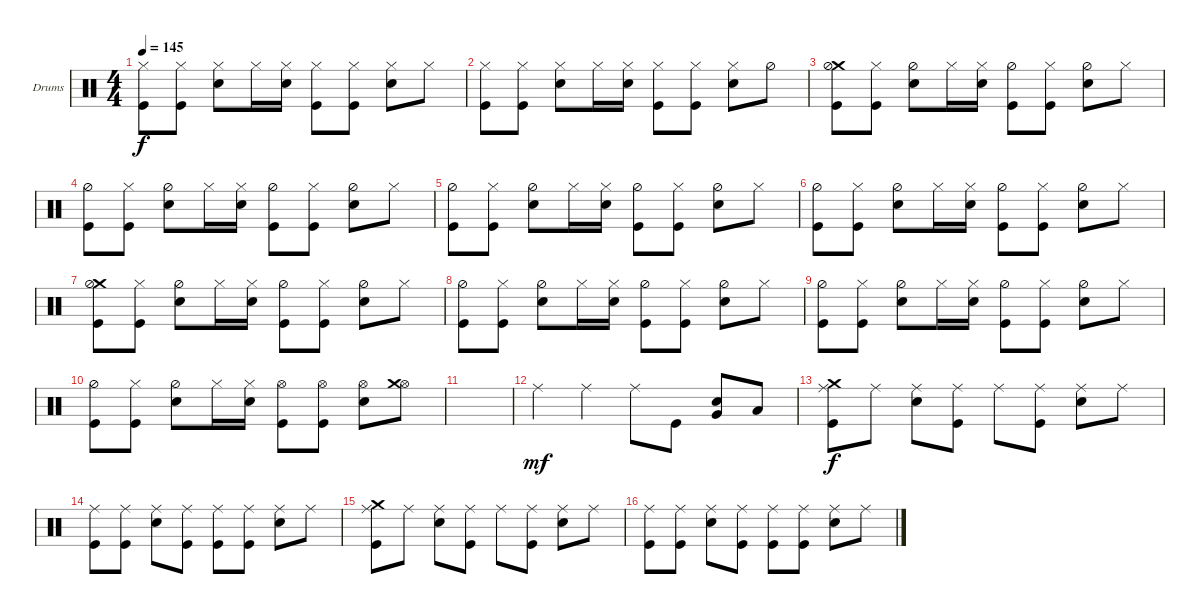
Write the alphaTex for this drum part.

\defaultSystemsLayout 4
\bracketExtendMode groupsimilarinstruments
\firstSystemTrackNameOrientation horizontal
\otherSystemsTrackNameOrientation horizontal
\track ("Drumkit" "Drums") {instrument percussion}
\staff {score}
\articulation defaults
\ts (4 4)
\tempo 145
\clef neutral
\ks c
("Kick (hit)" "Hi-Hat (closed)").8{dy f} ("Kick (hit)" "Hi-Hat (closed)").8 ("Snare (hit) 2" "Hi-Hat (closed)").8 "Hi-Hat (closed)".16 ("Snare (hit) 2" "Hi-Hat (closed)").16 ("Kick (hit)" "Hi-Hat (closed)").8 ("Kick (hit)" "Hi-Hat (closed)").8 ("Snare (hit) 2" "Hi-Hat (closed)").8 "Hi-Hat (closed)".8 |
("Kick (hit)" "Hi-Hat (closed)").8 ("Kick (hit)" "Hi-Hat (closed)").8 ("Snare (hit) 2" "Hi-Hat (closed)").8 "Hi-Hat (closed)".16 ("Snare (hit) 2" "Hi-Hat (closed)").16 ("Kick (hit)" "Hi-Hat (closed)").8 ("Kick (hit)" "Hi-Hat (closed)").8 ("Snare (hit) 2" "Hi-Hat (closed)").8 "Hi-Hat (half)".8 |
("Kick (hit)" "Crash medium (hit)" "Hi-Hat (half)").8 ("Kick (hit)" "Hi-Hat (closed)").8 ("Snare (hit) 2" "Hi-Hat (half)").8 "Hi-Hat (closed)".16 ("Snare (hit) 2" "Hi-Hat (closed)").16 ("Kick (hit)" "Hi-Hat (half)").8 ("Kick (hit)" "Hi-Hat (closed)").8 ("Snare (hit) 2" "Hi-Hat (half)").8 "Hi-Hat (closed)".8 |
("Kick (hit)" "Hi-Hat (half)").8 ("Kick (hit)" "Hi-Hat (closed)").8 ("Snare (hit) 2" "Hi-Hat (half)").8 "Hi-Hat (closed)".16 ("Snare (hit) 2" "Hi-Hat (closed)").16 ("Kick (hit)" "Hi-Hat (half)").8 ("Kick (hit)" "Hi-Hat (closed)").8 ("Snare (hit) 2" "Hi-Hat (half)").8 "Hi-Hat (closed)".8 |
("Kick (hit)" "Hi-Hat (half)").8 ("Kick (hit)" "Hi-Hat (closed)").8 ("Snare (hit) 2" "Hi-Hat (half)").8 "Hi-Hat (closed)".16 ("Snare (hit) 2" "Hi-Hat (closed)").16 ("Kick (hit)" "Hi-Hat (half)").8 ("Kick (hit)" "Hi-Hat (closed)").8 ("Snare (hit) 2" "Hi-Hat (half)").8 "Hi-Hat (closed)".8 |
("Kick (hit)" "Hi-Hat (half)").8 ("Kick (hit)" "Hi-Hat (closed)").8 ("Snare (hit) 2" "Hi-Hat (half)").8 "Hi-Hat (closed)".16 ("Snare (hit) 2" "Hi-Hat (closed)").16 ("Kick (hit)" "Hi-Hat (half)").8 ("Kick (hit)" "Hi-Hat (closed)").8 ("Snare (hit) 2" "Hi-Hat (half)").8 "Hi-Hat (closed)".8 |
("Kick (hit)" "Crash medium (hit)" "Hi-Hat (half)").8 ("Kick (hit)" "Hi-Hat (closed)").8 ("Snare (hit) 2" "Hi-Hat (half)").8 "Hi-Hat (closed)".16 ("Snare (hit) 2" "Hi-Hat (closed)").16 ("Kick (hit)" "Hi-Hat (half)").8 ("Kick (hit)" "Hi-Hat (closed)").8 ("Snare (hit) 2" "Hi-Hat (half)").8 "Hi-Hat (closed)".8 |
("Kick (hit)" "Hi-Hat (half)").8 ("Kick (hit)" "Hi-Hat (closed)").8 ("Snare (hit) 2" "Hi-Hat (half)").8 "Hi-Hat (closed)".16 ("Snare (hit) 2" "Hi-Hat (closed)").16 ("Kick (hit)" "Hi-Hat (half)").8 ("Kick (hit)" "Hi-Hat (closed)").8 ("Snare (hit) 2" "Hi-Hat (half)").8 "Hi-Hat (closed)".8 |
("Kick (hit)" "Hi-Hat (half)").8 ("Kick (hit)" "Hi-Hat (closed)").8 ("Snare (hit) 2" "Hi-Hat (half)").8 "Hi-Hat (closed)".16 ("Snare (hit) 2" "Hi-Hat (closed)").16 ("Kick (hit)" "Hi-Hat (half)").8 ("Kick (hit)" "Hi-Hat (closed)").8 ("Snare (hit) 2" "Hi-Hat (half)").8 "Hi-Hat (closed)".8 |
("Kick (hit)" "Hi-Hat (half)").8 ("Kick (hit)" "Hi-Hat (closed)").8 ("Snare (hit) 2" "Hi-Hat (half)").8 "Hi-Hat (closed)".16 ("Snare (hit) 2" "Hi-Hat (closed)").16 ("Kick (hit)" "Hi-Hat (open)").8 ("Kick (hit)" "Hi-Hat (open)").8 ("Snare (hit) 2" "Hi-Hat (open)").8 ("Hi-Hat (open)" "Crash medium (hit)").8 |
|
"Ride (middle)".4{dy mf} "Ride (middle)".4 "Ride (middle)".8 "Kick (hit)".8 ("Snare (hit) 2" "Very Low Tom (hit)").8 "Low Tom (hit)".8 |
("Kick (hit)" "Ride (middle)" "Crash medium (hit)").8{dy f} "Ride (middle)".8 ("Snare (hit) 2" "Ride (middle)").8 ("Kick (hit)" "Ride (middle)").8 "Ride (middle)".8 ("Kick (hit)" "Ride (middle)").8 ("Snare (hit) 2" "Ride (middle)").8 "Ride (middle)".8 |
("Kick (hit)" "Ride (middle)").8 ("Kick (hit)" "Ride (middle)").8 ("Snare (hit) 2" "Ride (middle)").8 ("Kick (hit)" "Ride (middle)").8 ("Kick (hit)" "Ride (middle)").8 ("Kick (hit)" "Ride (middle)").8 ("Snare (hit) 2" "Ride (middle)").8 "Ride (middle)".8 |
("Crash medium (hit)" "Kick (hit)" "Ride (middle)").8 "Ride (middle)".8 ("Snare (hit) 2" "Ride (middle)").8 ("Kick (hit)" "Ride (middle)").8 "Ride (middle)".8 ("Kick (hit)" "Ride (middle)").8 ("Snare (hit) 2" "Ride (middle)").8 "Ride (middle)".8 |
("Kick (hit)" "Ride (middle)").8 ("Kick (hit)" "Ride (middle)").8 ("Snare (hit) 2" "Ride (middle)").8 ("Kick (hit)" "Ride (middle)").8 ("Kick (hit)" "Ride (middle)").8 ("Kick (hit)" "Ride (middle)").8 ("Snare (hit) 2" "Ride (middle)").8 "Ride (middle)".8
